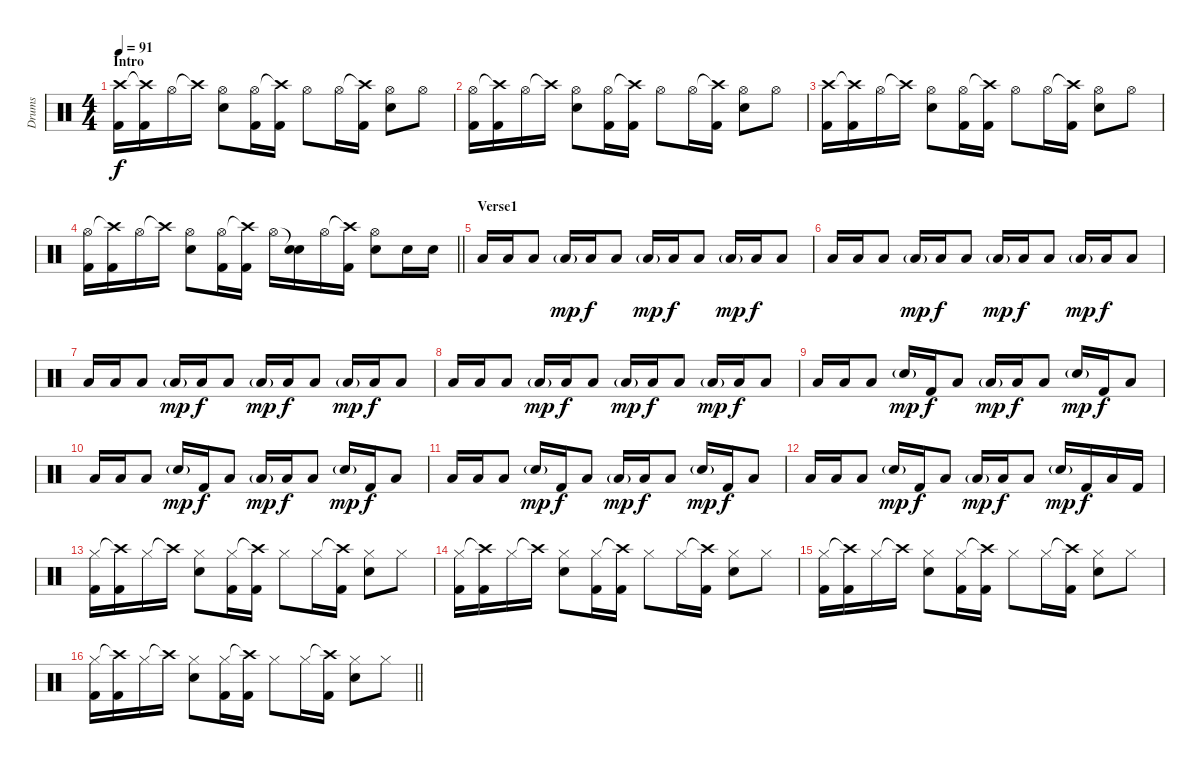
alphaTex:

\track ("Drums" "Drums") {instrument percussion}
\staff {score}
\articulation defaults
\ts (4 4)
\section ("" "Intro")
\tempo 91
\clef neutral
\ks c
("Crash high (hit)" "Kick (hit) 2").16{dy f} ("Crash high (hit)"{t} "Kick (hit) 2").16 "Hi-Hat (open)".16 "Crash high (hit)"{t}.16 ("Hi-Hat (open)" "Electric Snare (hit)").8 ("Hi-Hat (open)" "Kick (hit) 2").16 ("Crash high (hit)"{t} "Kick (hit) 2").16 "Hi-Hat (open)".8 "Hi-Hat (open)".16 ("Crash high (hit)"{t} "Kick (hit) 2").16 ("Hi-Hat (open)" "Electric Snare (hit)").8 "Hi-Hat (open)".8 |
("Hi-Hat (open)" "Kick (hit) 2").16 ("Crash high (hit)"{t} "Kick (hit) 2").16 "Hi-Hat (open)".16 "Crash high (hit)"{t}.16 ("Hi-Hat (open)" "Electric Snare (hit)").8 ("Hi-Hat (open)" "Kick (hit) 2").16 ("Crash high (hit)"{t} "Kick (hit) 2").16 "Hi-Hat (open)".8 "Hi-Hat (open)".16 ("Crash high (hit)"{t} "Kick (hit) 2").16 ("Hi-Hat (open)" "Electric Snare (hit)").8 "Hi-Hat (open)".8 |
("Crash high (hit)" "Kick (hit) 2").16 ("Crash high (hit)"{t} "Kick (hit) 2").16 "Hi-Hat (open)".16 "Crash high (hit)"{t}.16 ("Hi-Hat (open)" "Electric Snare (hit)").8 ("Hi-Hat (open)" "Kick (hit) 2").16 ("Crash high (hit)"{t} "Kick (hit) 2").16 "Hi-Hat (open)".8 "Hi-Hat (open)".16 ("Crash high (hit)"{t} "Kick (hit) 2").16 ("Hi-Hat (open)" "Electric Snare (hit)").8 "Hi-Hat (open)".8 |
\barLineRight lightlight
("Hi-Hat (open)" "Kick (hit) 2").16 ("Crash high (hit)"{t} "Kick (hit) 2").16 "Hi-Hat (open)".16 "Crash high (hit)"{t}.16 ("Hi-Hat (open)" "Electric Snare (hit)").8 ("Hi-Hat (open)" "Kick (hit) 2").16 ("Crash high (hit)"{t} "Kick (hit) 2").16 "Hi-Hat (open)".16 ("Snare (hit)"{t} "Electric Snare (hit)").16 "Hi-Hat (open)".16 ("Crash high (hit)"{t} "Kick (hit) 2").16 ("Hi-Hat (open)" "Electric Snare (hit)").8 "Electric Snare (hit)".16 "Electric Snare (hit)".16 |
\section ("" "Verse1")
"Low Floor Tom (hit)".16 "Low Floor Tom (hit)".16 "Low Floor Tom (hit)".8 "Low Floor Tom (hit)"{g}.16{dy mp} "Low Floor Tom (hit)".16{dy f} "Low Floor Tom (hit)".8 "Low Floor Tom (hit)"{g}.16{dy mp} "Low Floor Tom (hit)".16{dy f} "Low Floor Tom (hit)".8 "Low Floor Tom (hit)"{g}.16{dy mp} "Low Floor Tom (hit)".16{dy f} "Low Floor Tom (hit)".8 |
"Low Floor Tom (hit)".16 "Low Floor Tom (hit)".16 "Low Floor Tom (hit)".8 "Low Floor Tom (hit)"{g}.16{dy mp} "Low Floor Tom (hit)".16{dy f} "Low Floor Tom (hit)".8 "Low Floor Tom (hit)"{g}.16{dy mp} "Low Floor Tom (hit)".16{dy f} "Low Floor Tom (hit)".8 "Low Floor Tom (hit)"{g}.16{dy mp} "Low Floor Tom (hit)".16{dy f} "Low Floor Tom (hit)".8 |
"Low Floor Tom (hit)".16 "Low Floor Tom (hit)".16 "Low Floor Tom (hit)".8 "Low Floor Tom (hit)"{g}.16{dy mp} "Low Floor Tom (hit)".16{dy f} "Low Floor Tom (hit)".8 "Low Floor Tom (hit)"{g}.16{dy mp} "Low Floor Tom (hit)".16{dy f} "Low Floor Tom (hit)".8 "Low Floor Tom (hit)"{g}.16{dy mp} "Low Floor Tom (hit)".16{dy f} "Low Floor Tom (hit)".8 |
"Low Floor Tom (hit)".16 "Low Floor Tom (hit)".16 "Low Floor Tom (hit)".8 "Low Floor Tom (hit)"{g}.16{dy mp} "Low Floor Tom (hit)".16{dy f} "Low Floor Tom (hit)".8 "Low Floor Tom (hit)"{g}.16{dy mp} "Low Floor Tom (hit)".16{dy f} "Low Floor Tom (hit)".8 "Low Floor Tom (hit)"{g}.16{dy mp} "Low Floor Tom (hit)".16{dy f} "Low Floor Tom (hit)".8 |
"Low Floor Tom (hit)".16 "Low Floor Tom (hit)".16 "Low Floor Tom (hit)".8 "Electric Snare (hit)"{g}.16{dy mp} "Kick (hit) 2".16{dy f} "Low Floor Tom (hit)".8 "Low Floor Tom (hit)"{g}.16{dy mp} "Low Floor Tom (hit)".16{dy f} "Low Floor Tom (hit)".8 "Electric Snare (hit)"{g}.16{dy mp} "Kick (hit) 2".16{dy f} "Low Floor Tom (hit)".8 |
"Low Floor Tom (hit)".16 "Low Floor Tom (hit)".16 "Low Floor Tom (hit)".8 "Electric Snare (hit)"{g}.16{dy mp} "Kick (hit) 2".16{dy f} "Low Floor Tom (hit)".8 "Low Floor Tom (hit)"{g}.16{dy mp} "Low Floor Tom (hit)".16{dy f} "Low Floor Tom (hit)".8 "Electric Snare (hit)"{g}.16{dy mp} "Kick (hit) 2".16{dy f} "Low Floor Tom (hit)".8 |
"Low Floor Tom (hit)".16 "Low Floor Tom (hit)".16 "Low Floor Tom (hit)".8 "Electric Snare (hit)"{g}.16{dy mp} "Kick (hit) 2".16{dy f} "Low Floor Tom (hit)".8 "Low Floor Tom (hit)"{g}.16{dy mp} "Low Floor Tom (hit)".16{dy f} "Low Floor Tom (hit)".8 "Electric Snare (hit)"{g}.16{dy mp} "Kick (hit) 2".16{dy f} "Low Floor Tom (hit)".8 |
"Low Floor Tom (hit)".16 "Low Floor Tom (hit)".16 "Low Floor Tom (hit)".8 "Electric Snare (hit)"{g}.16{dy mp} "Kick (hit) 2".16{dy f} "Low Floor Tom (hit)".8 "Low Floor Tom (hit)"{g}.16{dy mp} "Low Floor Tom (hit)".16{dy f} "Low Floor Tom (hit)".8 "Electric Snare (hit)"{g}.16{dy mp} "Kick (hit) 2".16{dy f} "Low Floor Tom (hit)".16 "Kick (hit) 2".16 |
("Hi-Hat (closed)" "Kick (hit) 2").16 ("Crash high (hit)"{t} "Kick (hit) 2").16 "Hi-Hat (closed)".16 "Crash high (hit)"{t}.16 ("Hi-Hat (closed)" "Electric Snare (hit)").8 ("Hi-Hat (closed)" "Kick (hit) 2").16 ("Crash high (hit)"{t} "Kick (hit) 2").16 "Hi-Hat (closed)".8 "Hi-Hat (closed)".16 ("Crash high (hit)"{t} "Kick (hit) 2").16 ("Hi-Hat (closed)" "Electric Snare (hit)").8 "Hi-Hat (closed)".8 |
("Hi-Hat (closed)" "Kick (hit) 2").16 ("Crash high (hit)"{t} "Kick (hit) 2").16 "Hi-Hat (closed)".16 "Crash high (hit)"{t}.16 ("Hi-Hat (closed)" "Electric Snare (hit)").8 ("Hi-Hat (closed)" "Kick (hit) 2").16 ("Crash high (hit)"{t} "Kick (hit) 2").16 "Hi-Hat (closed)".8 "Hi-Hat (closed)".16 ("Crash high (hit)"{t} "Kick (hit) 2").16 ("Hi-Hat (closed)" "Electric Snare (hit)").8 "Hi-Hat (closed)".8 |
("Hi-Hat (closed)" "Kick (hit) 2").16 ("Crash high (hit)"{t} "Kick (hit) 2").16 "Hi-Hat (closed)".16 "Crash high (hit)"{t}.16 ("Hi-Hat (closed)" "Electric Snare (hit)").8 ("Hi-Hat (closed)" "Kick (hit) 2").16 ("Crash high (hit)"{t} "Kick (hit) 2").16 "Hi-Hat (closed)".8 "Hi-Hat (closed)".16 ("Crash high (hit)"{t} "Kick (hit) 2").16 ("Hi-Hat (closed)" "Electric Snare (hit)").8 "Hi-Hat (closed)".8 |
\barLineRight lightlight
("Hi-Hat (closed)" "Kick (hit) 2").16 ("Crash high (hit)"{t} "Kick (hit) 2").16 "Hi-Hat (closed)".16 "Crash high (hit)"{t}.16 ("Hi-Hat (closed)" "Electric Snare (hit)").8 ("Hi-Hat (closed)" "Kick (hit) 2").16 ("Crash high (hit)"{t} "Kick (hit) 2").16 "Hi-Hat (closed)".8 "Hi-Hat (closed)".16 ("Crash high (hit)"{t} "Kick (hit) 2").16 ("Hi-Hat (closed)" "Electric Snare (hit)").8 "Hi-Hat (closed)".8
